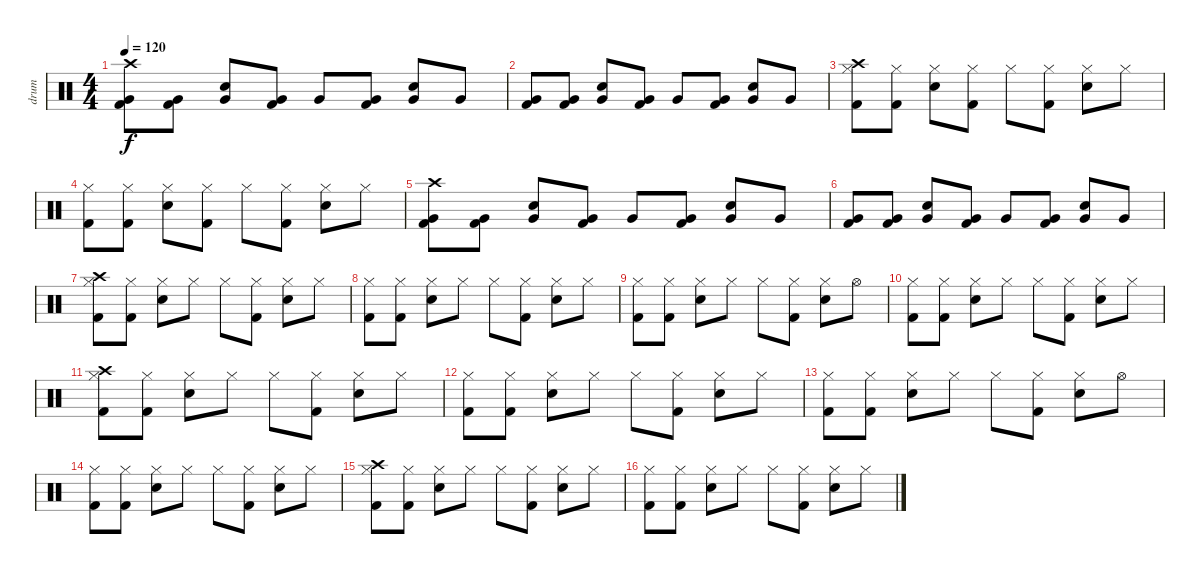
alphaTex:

\track ("drum" "drum") {instrument percussion}
\staff {score}
\articulation defaults
\ts (4 4)
\tempo 120
\clef neutral
\ks c
("Crash high (hit)" "Very Low Tom (hit)" "Kick (hit) 2").8{dy f} ("Very Low Tom (hit)" "Kick (hit) 2").8 ("Very Low Tom (hit)" "Electric Snare (hit)").8 ("Very Low Tom (hit)" "Kick (hit) 2").8 "Very Low Tom (hit)".8 ("Very Low Tom (hit)" "Kick (hit) 2").8 ("Very Low Tom (hit)" "Electric Snare (hit)").8 "Very Low Tom (hit)".8 |
("Very Low Tom (hit)" "Kick (hit) 2").8 ("Very Low Tom (hit)" "Kick (hit) 2").8 ("Very Low Tom (hit)" "Electric Snare (hit)").8 ("Very Low Tom (hit)" "Kick (hit) 2").8 "Very Low Tom (hit)".8 ("Very Low Tom (hit)" "Kick (hit) 2").8 ("Very Low Tom (hit)" "Electric Snare (hit)").8 "Very Low Tom (hit)".8 |
("Crash high (hit)" "Hi-Hat (closed)" "Kick (hit) 2").8 ("Hi-Hat (closed)" "Kick (hit) 2").8 ("Hi-Hat (closed)" "Electric Snare (hit)").8 ("Hi-Hat (closed)" "Kick (hit) 2").8 "Hi-Hat (closed)".8 ("Hi-Hat (closed)" "Kick (hit) 2").8 ("Hi-Hat (closed)" "Electric Snare (hit)").8 "Hi-Hat (closed)".8 |
("Hi-Hat (closed)" "Kick (hit) 2").8 ("Hi-Hat (closed)" "Kick (hit) 2").8 ("Hi-Hat (closed)" "Electric Snare (hit)").8 ("Hi-Hat (closed)" "Kick (hit) 2").8 "Hi-Hat (closed)".8 ("Hi-Hat (closed)" "Kick (hit) 2").8 ("Hi-Hat (closed)" "Electric Snare (hit)").8 "Hi-Hat (closed)".8 |
("Crash high (hit)" "Very Low Tom (hit)" "Kick (hit) 2").8 ("Very Low Tom (hit)" "Kick (hit) 2").8 ("Very Low Tom (hit)" "Electric Snare (hit)").8 ("Very Low Tom (hit)" "Kick (hit) 2").8 "Very Low Tom (hit)".8 ("Very Low Tom (hit)" "Kick (hit) 2").8 ("Very Low Tom (hit)" "Electric Snare (hit)").8 "Very Low Tom (hit)".8 |
("Very Low Tom (hit)" "Kick (hit) 2").8 ("Very Low Tom (hit)" "Kick (hit) 2").8 ("Very Low Tom (hit)" "Electric Snare (hit)").8 ("Very Low Tom (hit)" "Kick (hit) 2").8 "Very Low Tom (hit)".8 ("Very Low Tom (hit)" "Kick (hit) 2").8 ("Very Low Tom (hit)" "Electric Snare (hit)").8 "Very Low Tom (hit)".8 |
("Crash high (hit)" "Hi-Hat (closed)" "Kick (hit) 2").8 ("Hi-Hat (closed)" "Kick (hit) 2").8 ("Hi-Hat (closed)" "Electric Snare (hit)").8 "Hi-Hat (closed)".8 "Hi-Hat (closed)".8 ("Hi-Hat (closed)" "Kick (hit) 2").8 ("Hi-Hat (closed)" "Electric Snare (hit)").8 "Hi-Hat (closed)".8 |
("Hi-Hat (closed)" "Kick (hit) 2").8 ("Hi-Hat (closed)" "Kick (hit) 2").8 ("Hi-Hat (closed)" "Electric Snare (hit)").8 "Hi-Hat (closed)".8 "Hi-Hat (closed)".8 ("Hi-Hat (closed)" "Kick (hit) 2").8 ("Hi-Hat (closed)" "Electric Snare (hit)").8 "Hi-Hat (closed)".8 |
("Hi-Hat (closed)" "Kick (hit) 2").8 ("Hi-Hat (closed)" "Kick (hit) 2").8 ("Hi-Hat (closed)" "Electric Snare (hit)").8 "Hi-Hat (closed)".8 "Hi-Hat (closed)".8 ("Hi-Hat (closed)" "Kick (hit) 2").8 ("Hi-Hat (closed)" "Electric Snare (hit)").8 "Hi-Hat (open)".8 |
("Hi-Hat (closed)" "Kick (hit) 2").8 ("Hi-Hat (closed)" "Kick (hit) 2").8 ("Hi-Hat (closed)" "Electric Snare (hit)").8 "Hi-Hat (closed)".8 "Hi-Hat (closed)".8 ("Hi-Hat (closed)" "Kick (hit) 2").8 ("Hi-Hat (closed)" "Electric Snare (hit)").8 "Hi-Hat (closed)".8 |
("Crash high (hit)" "Hi-Hat (closed)" "Kick (hit) 2").8 ("Hi-Hat (closed)" "Kick (hit) 2").8 ("Hi-Hat (closed)" "Electric Snare (hit)").8 "Hi-Hat (closed)".8 "Hi-Hat (closed)".8 ("Hi-Hat (closed)" "Kick (hit) 2").8 ("Hi-Hat (closed)" "Electric Snare (hit)").8 "Hi-Hat (closed)".8 |
("Hi-Hat (closed)" "Kick (hit) 2").8 ("Hi-Hat (closed)" "Kick (hit) 2").8 ("Hi-Hat (closed)" "Electric Snare (hit)").8 "Hi-Hat (closed)".8 "Hi-Hat (closed)".8 ("Hi-Hat (closed)" "Kick (hit) 2").8 ("Hi-Hat (closed)" "Electric Snare (hit)").8 "Hi-Hat (closed)".8 |
("Hi-Hat (closed)" "Kick (hit) 2").8 ("Hi-Hat (closed)" "Kick (hit) 2").8 ("Hi-Hat (closed)" "Electric Snare (hit)").8 "Hi-Hat (closed)".8 "Hi-Hat (closed)".8 ("Hi-Hat (closed)" "Kick (hit) 2").8 ("Hi-Hat (closed)" "Electric Snare (hit)").8 "Hi-Hat (open)".8 |
("Hi-Hat (closed)" "Kick (hit) 2").8 ("Hi-Hat (closed)" "Kick (hit) 2").8 ("Hi-Hat (closed)" "Electric Snare (hit)").8 "Hi-Hat (closed)".8 "Hi-Hat (closed)".8 ("Hi-Hat (closed)" "Kick (hit) 2").8 ("Hi-Hat (closed)" "Electric Snare (hit)").8 "Hi-Hat (closed)".8 |
("Crash high (hit)" "Hi-Hat (closed)" "Kick (hit) 2").8 ("Hi-Hat (closed)" "Kick (hit) 2").8 ("Hi-Hat (closed)" "Electric Snare (hit)").8 "Hi-Hat (closed)".8 "Hi-Hat (closed)".8 ("Hi-Hat (closed)" "Kick (hit) 2").8 ("Hi-Hat (closed)" "Electric Snare (hit)").8 "Hi-Hat (closed)".8 |
("Hi-Hat (closed)" "Kick (hit) 2").8 ("Hi-Hat (closed)" "Kick (hit) 2").8 ("Hi-Hat (closed)" "Electric Snare (hit)").8 "Hi-Hat (closed)".8 "Hi-Hat (closed)".8 ("Hi-Hat (closed)" "Kick (hit) 2").8 ("Hi-Hat (closed)" "Electric Snare (hit)").8 "Hi-Hat (closed)".8
